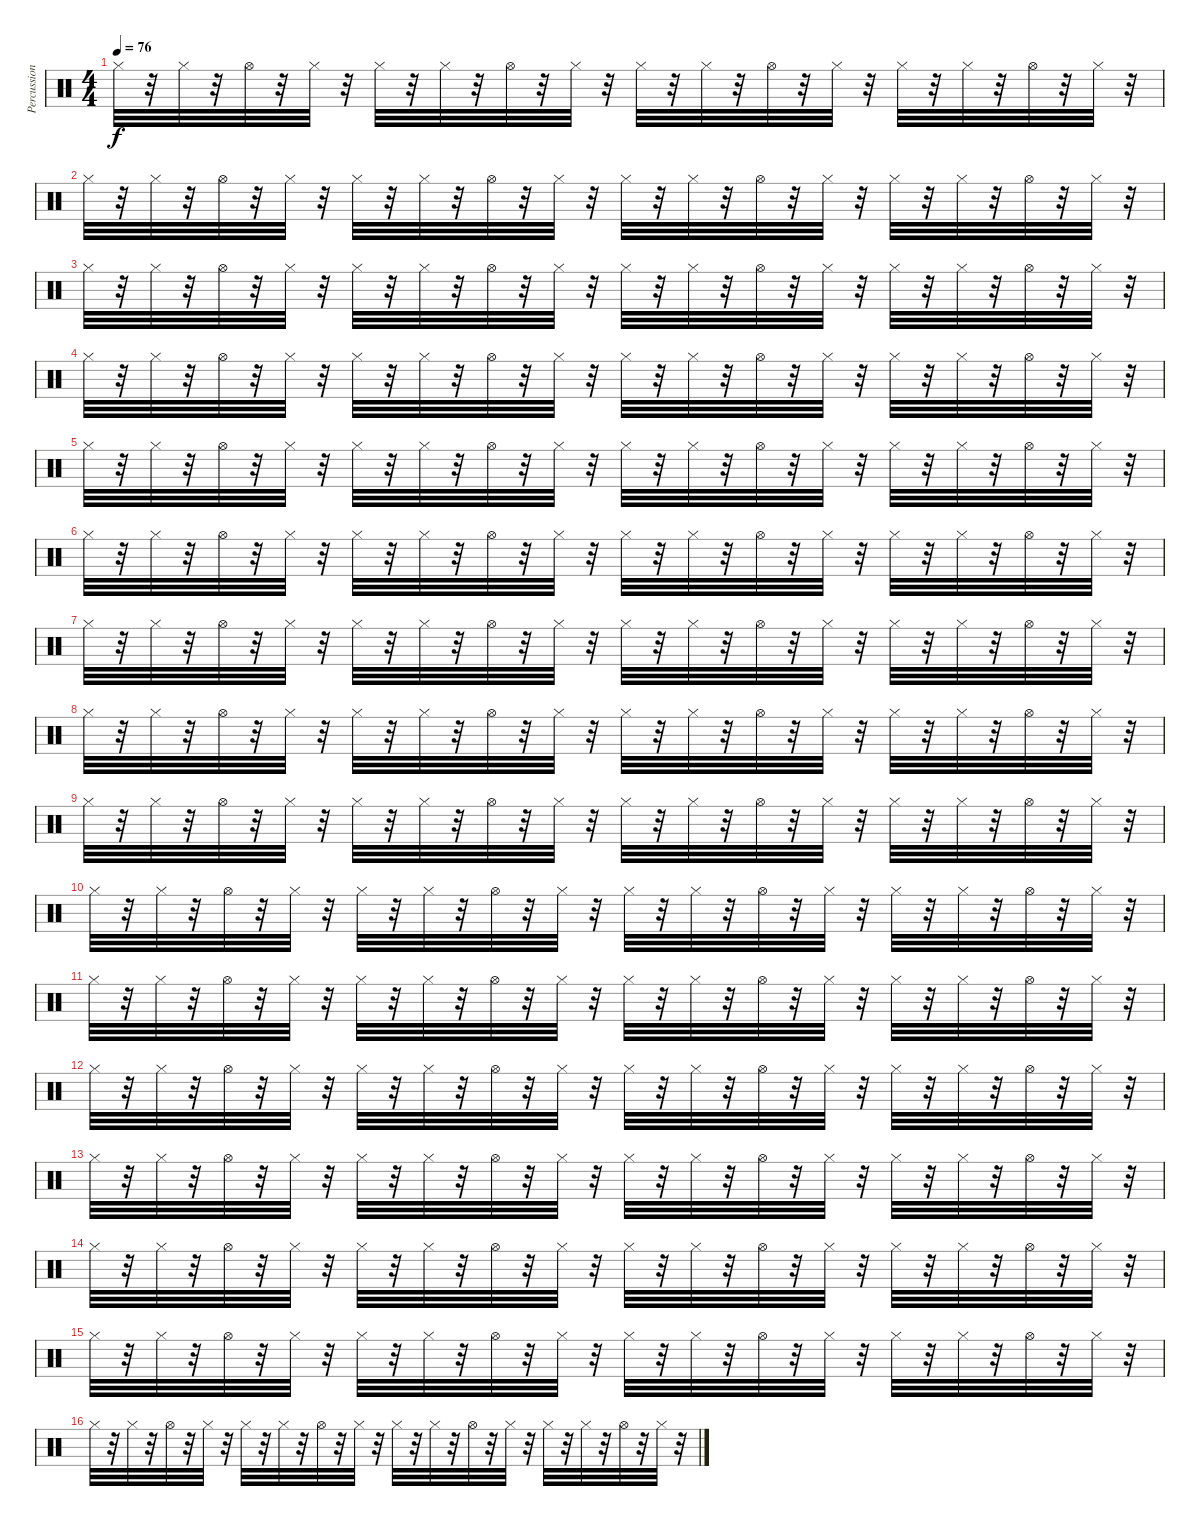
\track ("Percussioni" "Percussion") {instrument percussion}
\staff {score}
\articulation defaults
\ts (4 4)
\tempo 76
\clef neutral
\ks c "Hi-Hat (closed)".32{dy f}
r.32 "Hi-Hat (closed)".32 r.32 "Hi-Hat (open)".32 r.32 "Hi-Hat (closed)".32 r.32 "Hi-Hat (closed)".32 r.32 "Hi-Hat (closed)".32 r.32 "Hi-Hat (open)".32 r.32 "Hi-Hat (closed)".32 r.32 "Hi-Hat (closed)".32 r.32 "Hi-Hat (closed)".32 r.32 "Hi-Hat (open)".32 r.32 "Hi-Hat (closed)".32 r.32 "Hi-Hat (closed)".32 r.32 "Hi-Hat (closed)".32 r.32 "Hi-Hat (open)".32 r.32 "Hi-Hat (closed)".32 r.32 |
"Hi-Hat (closed)".32 r.32 "Hi-Hat (closed)".32 r.32 "Hi-Hat (open)".32 r.32 "Hi-Hat (closed)".32 r.32 "Hi-Hat (closed)".32 r.32 "Hi-Hat (closed)".32 r.32 "Hi-Hat (open)".32 r.32 "Hi-Hat (closed)".32 r.32 "Hi-Hat (closed)".32 r.32 "Hi-Hat (closed)".32 r.32 "Hi-Hat (open)".32 r.32 "Hi-Hat (closed)".32 r.32 "Hi-Hat (closed)".32 r.32 "Hi-Hat (closed)".32 r.32 "Hi-Hat (open)".32 r.32 "Hi-Hat (closed)".32 r.32 |
"Hi-Hat (closed)".32 r.32 "Hi-Hat (closed)".32 r.32 "Hi-Hat (open)".32 r.32 "Hi-Hat (closed)".32 r.32 "Hi-Hat (closed)".32 r.32 "Hi-Hat (closed)".32 r.32 "Hi-Hat (open)".32 r.32 "Hi-Hat (closed)".32 r.32 "Hi-Hat (closed)".32 r.32 "Hi-Hat (closed)".32 r.32 "Hi-Hat (open)".32 r.32 "Hi-Hat (closed)".32 r.32 "Hi-Hat (closed)".32 r.32 "Hi-Hat (closed)".32 r.32 "Hi-Hat (open)".32 r.32 "Hi-Hat (closed)".32 r.32 |
"Hi-Hat (closed)".32 r.32 "Hi-Hat (closed)".32 r.32 "Hi-Hat (open)".32 r.32 "Hi-Hat (closed)".32 r.32 "Hi-Hat (closed)".32 r.32 "Hi-Hat (closed)".32 r.32 "Hi-Hat (open)".32 r.32 "Hi-Hat (closed)".32 r.32 "Hi-Hat (closed)".32 r.32 "Hi-Hat (closed)".32 r.32 "Hi-Hat (open)".32 r.32 "Hi-Hat (closed)".32 r.32 "Hi-Hat (closed)".32 r.32 "Hi-Hat (closed)".32 r.32 "Hi-Hat (open)".32 r.32 "Hi-Hat (closed)".32 r.32 |
"Hi-Hat (closed)".32 r.32 "Hi-Hat (closed)".32 r.32 "Hi-Hat (open)".32 r.32 "Hi-Hat (closed)".32 r.32 "Hi-Hat (closed)".32 r.32 "Hi-Hat (closed)".32 r.32 "Hi-Hat (open)".32 r.32 "Hi-Hat (closed)".32 r.32 "Hi-Hat (closed)".32 r.32 "Hi-Hat (closed)".32 r.32 "Hi-Hat (open)".32 r.32 "Hi-Hat (closed)".32 r.32 "Hi-Hat (closed)".32 r.32 "Hi-Hat (closed)".32 r.32 "Hi-Hat (open)".32 r.32 "Hi-Hat (closed)".32 r.32 |
"Hi-Hat (closed)".32 r.32 "Hi-Hat (closed)".32 r.32 "Hi-Hat (open)".32 r.32 "Hi-Hat (closed)".32 r.32 "Hi-Hat (closed)".32 r.32 "Hi-Hat (closed)".32 r.32 "Hi-Hat (open)".32 r.32 "Hi-Hat (closed)".32 r.32 "Hi-Hat (closed)".32 r.32 "Hi-Hat (closed)".32 r.32 "Hi-Hat (open)".32 r.32 "Hi-Hat (closed)".32 r.32 "Hi-Hat (closed)".32 r.32 "Hi-Hat (closed)".32 r.32 "Hi-Hat (open)".32 r.32 "Hi-Hat (closed)".32 r.32 |
"Hi-Hat (closed)".32 r.32 "Hi-Hat (closed)".32 r.32 "Hi-Hat (open)".32 r.32 "Hi-Hat (closed)".32 r.32 "Hi-Hat (closed)".32 r.32 "Hi-Hat (closed)".32 r.32 "Hi-Hat (open)".32 r.32 "Hi-Hat (closed)".32 r.32 "Hi-Hat (closed)".32 r.32 "Hi-Hat (closed)".32 r.32 "Hi-Hat (open)".32 r.32 "Hi-Hat (closed)".32 r.32 "Hi-Hat (closed)".32 r.32 "Hi-Hat (closed)".32 r.32 "Hi-Hat (open)".32 r.32 "Hi-Hat (closed)".32 r.32 |
"Hi-Hat (closed)".32 r.32 "Hi-Hat (closed)".32 r.32 "Hi-Hat (open)".32 r.32 "Hi-Hat (closed)".32 r.32 "Hi-Hat (closed)".32 r.32 "Hi-Hat (closed)".32 r.32 "Hi-Hat (open)".32 r.32 "Hi-Hat (closed)".32 r.32 "Hi-Hat (closed)".32 r.32 "Hi-Hat (closed)".32 r.32 "Hi-Hat (open)".32 r.32 "Hi-Hat (closed)".32 r.32 "Hi-Hat (closed)".32 r.32 "Hi-Hat (closed)".32 r.32 "Hi-Hat (open)".32 r.32 "Hi-Hat (closed)".32 r.32 |
"Hi-Hat (closed)".32 r.32 "Hi-Hat (closed)".32 r.32 "Hi-Hat (open)".32 r.32 "Hi-Hat (closed)".32 r.32 "Hi-Hat (closed)".32 r.32 "Hi-Hat (closed)".32 r.32 "Hi-Hat (open)".32 r.32 "Hi-Hat (closed)".32 r.32 "Hi-Hat (closed)".32 r.32 "Hi-Hat (closed)".32 r.32 "Hi-Hat (open)".32 r.32 "Hi-Hat (closed)".32 r.32 "Hi-Hat (closed)".32 r.32 "Hi-Hat (closed)".32 r.32 "Hi-Hat (open)".32 r.32 "Hi-Hat (closed)".32 r.32 |
"Hi-Hat (closed)".32 r.32 "Hi-Hat (closed)".32 r.32 "Hi-Hat (open)".32 r.32 "Hi-Hat (closed)".32 r.32 "Hi-Hat (closed)".32 r.32 "Hi-Hat (closed)".32 r.32 "Hi-Hat (open)".32 r.32 "Hi-Hat (closed)".32 r.32 "Hi-Hat (closed)".32 r.32 "Hi-Hat (closed)".32 r.32 "Hi-Hat (open)".32 r.32 "Hi-Hat (closed)".32 r.32 "Hi-Hat (closed)".32 r.32 "Hi-Hat (closed)".32 r.32 "Hi-Hat (open)".32 r.32 "Hi-Hat (closed)".32 r.32 |
"Hi-Hat (closed)".32 r.32 "Hi-Hat (closed)".32 r.32 "Hi-Hat (open)".32 r.32 "Hi-Hat (closed)".32 r.32 "Hi-Hat (closed)".32 r.32 "Hi-Hat (closed)".32 r.32 "Hi-Hat (open)".32 r.32 "Hi-Hat (closed)".32 r.32 "Hi-Hat (closed)".32 r.32 "Hi-Hat (closed)".32 r.32 "Hi-Hat (open)".32 r.32 "Hi-Hat (closed)".32 r.32 "Hi-Hat (closed)".32 r.32 "Hi-Hat (closed)".32 r.32 "Hi-Hat (open)".32 r.32 "Hi-Hat (closed)".32 r.32 |
"Hi-Hat (closed)".32 r.32 "Hi-Hat (closed)".32 r.32 "Hi-Hat (open)".32 r.32 "Hi-Hat (closed)".32 r.32 "Hi-Hat (closed)".32 r.32 "Hi-Hat (closed)".32 r.32 "Hi-Hat (open)".32 r.32 "Hi-Hat (closed)".32 r.32 "Hi-Hat (closed)".32 r.32 "Hi-Hat (closed)".32 r.32 "Hi-Hat (open)".32 r.32 "Hi-Hat (closed)".32 r.32 "Hi-Hat (closed)".32 r.32 "Hi-Hat (closed)".32 r.32 "Hi-Hat (open)".32 r.32 "Hi-Hat (closed)".32 r.32 |
"Hi-Hat (closed)".32 r.32 "Hi-Hat (closed)".32 r.32 "Hi-Hat (open)".32 r.32 "Hi-Hat (closed)".32 r.32 "Hi-Hat (closed)".32 r.32 "Hi-Hat (closed)".32 r.32 "Hi-Hat (open)".32 r.32 "Hi-Hat (closed)".32 r.32 "Hi-Hat (closed)".32 r.32 "Hi-Hat (closed)".32 r.32 "Hi-Hat (open)".32 r.32 "Hi-Hat (closed)".32 r.32 "Hi-Hat (closed)".32 r.32 "Hi-Hat (closed)".32 r.32 "Hi-Hat (open)".32 r.32 "Hi-Hat (closed)".32 r.32 |
"Hi-Hat (closed)".32 r.32 "Hi-Hat (closed)".32 r.32 "Hi-Hat (open)".32 r.32 "Hi-Hat (closed)".32 r.32 "Hi-Hat (closed)".32 r.32 "Hi-Hat (closed)".32 r.32 "Hi-Hat (open)".32 r.32 "Hi-Hat (closed)".32 r.32 "Hi-Hat (closed)".32 r.32 "Hi-Hat (closed)".32 r.32 "Hi-Hat (open)".32 r.32 "Hi-Hat (closed)".32 r.32 "Hi-Hat (closed)".32 r.32 "Hi-Hat (closed)".32 r.32 "Hi-Hat (open)".32 r.32 "Hi-Hat (closed)".32 r.32 |
"Hi-Hat (closed)".32 r.32 "Hi-Hat (closed)".32 r.32 "Hi-Hat (open)".32 r.32 "Hi-Hat (closed)".32 r.32 "Hi-Hat (closed)".32 r.32 "Hi-Hat (closed)".32 r.32 "Hi-Hat (open)".32 r.32 "Hi-Hat (closed)".32 r.32 "Hi-Hat (closed)".32 r.32 "Hi-Hat (closed)".32 r.32 "Hi-Hat (open)".32 r.32 "Hi-Hat (closed)".32 r.32 "Hi-Hat (closed)".32 r.32 "Hi-Hat (closed)".32 r.32 "Hi-Hat (open)".32 r.32 "Hi-Hat (closed)".32 r.32 |
"Hi-Hat (closed)".32 r.32 "Hi-Hat (closed)".32 r.32 "Hi-Hat (open)".32 r.32 "Hi-Hat (closed)".32 r.32 "Hi-Hat (closed)".32 r.32 "Hi-Hat (closed)".32 r.32 "Hi-Hat (open)".32 r.32 "Hi-Hat (closed)".32 r.32 "Hi-Hat (closed)".32 r.32 "Hi-Hat (closed)".32 r.32 "Hi-Hat (open)".32 r.32 "Hi-Hat (closed)".32 r.32 "Hi-Hat (closed)".32 r.32 "Hi-Hat (closed)".32 r.32 "Hi-Hat (open)".32 r.32 "Hi-Hat (closed)".32 r.32
